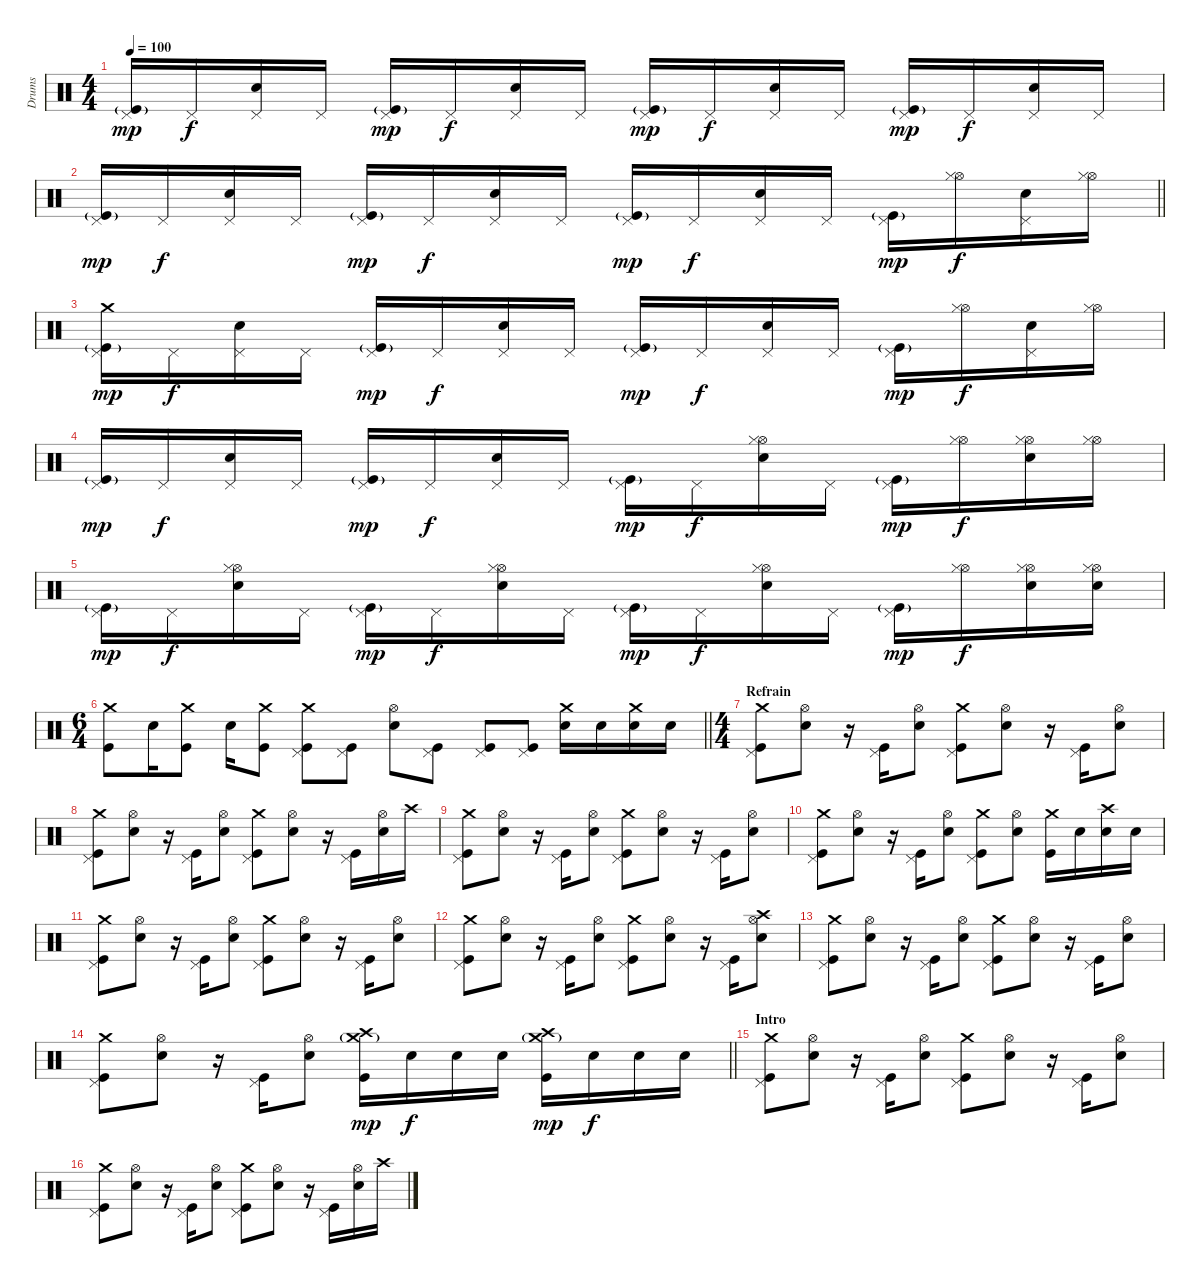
\track ("Drums" "Drums") {instrument percussion}
\staff {score}
\articulation defaults
\ts (4 4)
\tempo 100
\clef neutral
\ks c
("Pedal Hi-Hat (hit)" "Kick (hit)"{g}).16{dy mp} "Pedal Hi-Hat (hit)".16{dy f} ("Pedal Hi-Hat (hit)" "Electric Snare (hit)").16 "Pedal Hi-Hat (hit)".16 ("Pedal Hi-Hat (hit)" "Kick (hit)"{g}).16{dy mp} "Pedal Hi-Hat (hit)".16{dy f} ("Pedal Hi-Hat (hit)" "Electric Snare (hit)").16 "Pedal Hi-Hat (hit)".16 ("Pedal Hi-Hat (hit)" "Kick (hit)"{g}).16{dy mp} "Pedal Hi-Hat (hit)".16{dy f} ("Pedal Hi-Hat (hit)" "Electric Snare (hit)").16 "Pedal Hi-Hat (hit)".16 ("Pedal Hi-Hat (hit)" "Kick (hit)"{g}).16{dy mp} "Pedal Hi-Hat (hit)".16{dy f} ("Pedal Hi-Hat (hit)" "Electric Snare (hit)").16 "Pedal Hi-Hat (hit)".16 |
\barLineRight lightlight
("Pedal Hi-Hat (hit)" "Kick (hit)"{g}).16{dy mp} "Pedal Hi-Hat (hit)".16{dy f} ("Pedal Hi-Hat (hit)" "Electric Snare (hit)").16 "Pedal Hi-Hat (hit)".16 ("Pedal Hi-Hat (hit)" "Kick (hit)"{g}).16{dy mp} "Pedal Hi-Hat (hit)".16{dy f} ("Pedal Hi-Hat (hit)" "Electric Snare (hit)").16 "Pedal Hi-Hat (hit)".16 ("Pedal Hi-Hat (hit)" "Kick (hit)"{g}).16{dy mp} "Pedal Hi-Hat (hit)".16{dy f} ("Pedal Hi-Hat (hit)" "Electric Snare (hit)").16 "Pedal Hi-Hat (hit)".16 ("Pedal Hi-Hat (hit)" "Kick (hit)"{g}).16{dy mp} ("Hi-Hat (open)" "Hi-Hat (closed)").16{dy f} ("Pedal Hi-Hat (hit)" "Electric Snare (hit)").16 ("Hi-Hat (open)" "Hi-Hat (closed)").16 |
("Pedal Hi-Hat (hit)" "Crash medium (hit)" "Kick (hit)"{g}).16{dy mp} "Pedal Hi-Hat (hit)".16{dy f} ("Pedal Hi-Hat (hit)" "Electric Snare (hit)").16 "Pedal Hi-Hat (hit)".16 ("Pedal Hi-Hat (hit)" "Kick (hit)"{g}).16{dy mp} "Pedal Hi-Hat (hit)".16{dy f} ("Pedal Hi-Hat (hit)" "Electric Snare (hit)").16 "Pedal Hi-Hat (hit)".16 ("Pedal Hi-Hat (hit)" "Kick (hit)"{g}).16{dy mp} "Pedal Hi-Hat (hit)".16{dy f} ("Pedal Hi-Hat (hit)" "Electric Snare (hit)").16 "Pedal Hi-Hat (hit)".16 ("Pedal Hi-Hat (hit)" "Kick (hit)"{g}).16{dy mp} ("Hi-Hat (open)" "Hi-Hat (closed)").16{dy f} ("Pedal Hi-Hat (hit)" "Electric Snare (hit)").16 ("Hi-Hat (open)" "Hi-Hat (closed)").16 |
("Pedal Hi-Hat (hit)" "Kick (hit)"{g}).16{dy mp} "Pedal Hi-Hat (hit)".16{dy f} ("Pedal Hi-Hat (hit)" "Electric Snare (hit)").16 "Pedal Hi-Hat (hit)".16 ("Pedal Hi-Hat (hit)" "Kick (hit)"{g}).16{dy mp} "Pedal Hi-Hat (hit)".16{dy f} ("Pedal Hi-Hat (hit)" "Electric Snare (hit)").16 "Pedal Hi-Hat (hit)".16 ("Pedal Hi-Hat (hit)" "Kick (hit)"{g}).16{dy mp} "Pedal Hi-Hat (hit)".16{dy f} ("Hi-Hat (open)" "Hi-Hat (closed)" "Electric Snare (hit)").16 "Pedal Hi-Hat (hit)".16 ("Pedal Hi-Hat (hit)" "Kick (hit)"{g}).16{dy mp} ("Hi-Hat (open)" "Hi-Hat (closed)").16{dy f} ("Hi-Hat (open)" "Hi-Hat (closed)" "Electric Snare (hit)").16 ("Hi-Hat (open)" "Hi-Hat (closed)").16 |
("Pedal Hi-Hat (hit)" "Kick (hit)"{g}).16{dy mp} "Pedal Hi-Hat (hit)".16{dy f} ("Hi-Hat (open)" "Hi-Hat (closed)" "Electric Snare (hit)").16 "Pedal Hi-Hat (hit)".16 ("Pedal Hi-Hat (hit)" "Kick (hit)"{g}).16{dy mp} "Pedal Hi-Hat (hit)".16{dy f} ("Hi-Hat (open)" "Hi-Hat (closed)" "Electric Snare (hit)").16 "Pedal Hi-Hat (hit)".16 ("Pedal Hi-Hat (hit)" "Kick (hit)"{g}).16{dy mp} "Pedal Hi-Hat (hit)".16{dy f} ("Hi-Hat (open)" "Hi-Hat (closed)" "Electric Snare (hit)").16 "Pedal Hi-Hat (hit)".16 ("Pedal Hi-Hat (hit)" "Kick (hit)"{g}).16{dy mp} ("Hi-Hat (open)" "Hi-Hat (closed)").16{dy f} ("Hi-Hat (open)" "Hi-Hat (closed)" "Electric Snare (hit)").16 ("Hi-Hat (open)" "Hi-Hat (closed)" "Electric Snare (hit)").16 |
\ts (6 4)
\barLineRight lightlight
("Crash medium (hit)" "Kick (hit)").8 "Electric Snare (hit)".16 ("Crash medium (hit)" "Kick (hit)").8 "Electric Snare (hit)".16 ("Crash medium (hit)" "Kick (hit)").8 ("Crash medium (hit)" "Pedal Hi-Hat (hit)" "Kick (hit)").8 ("Pedal Hi-Hat (hit)" "Kick (hit)").8 ("Hi-Hat (open)" "Electric Snare (hit)").8 ("Pedal Hi-Hat (hit)" "Kick (hit)").8 ("Pedal Hi-Hat (hit)" "Kick (hit)").8 ("Pedal Hi-Hat (hit)" "Kick (hit)").8 ("Crash medium (hit)" "Electric Snare (hit)").16 "Electric Snare (hit)".16 ("Crash medium (hit)" "Electric Snare (hit)").16 "Electric Snare (hit)".16 |
\ts (4 4)
\section ("" "Refrain")
("Crash medium (hit)" "Pedal Hi-Hat (hit)" "Kick (hit)").8 ("Hi-Hat (open)" "Electric Snare (hit)").8 r.16 ("Pedal Hi-Hat (hit)" "Kick (hit)").16 ("Hi-Hat (open)" "Electric Snare (hit)").8 ("Crash medium (hit)" "Pedal Hi-Hat (hit)" "Kick (hit)").8 ("Hi-Hat (open)" "Electric Snare (hit)").8 r.16 ("Pedal Hi-Hat (hit)" "Kick (hit)").16 ("Hi-Hat (open)" "Electric Snare (hit)").8 |
("Crash medium (hit)" "Pedal Hi-Hat (hit)" "Kick (hit)").8 ("Hi-Hat (open)" "Electric Snare (hit)").8 r.16 ("Pedal Hi-Hat (hit)" "Kick (hit)").16 ("Hi-Hat (open)" "Electric Snare (hit)").8 ("Crash medium (hit)" "Pedal Hi-Hat (hit)" "Kick (hit)").8 ("Hi-Hat (open)" "Electric Snare (hit)").8 r.16 ("Pedal Hi-Hat (hit)" "Kick (hit)").16 ("Hi-Hat (open)" "Electric Snare (hit)").16 "Crash high (hit)".16 |
("Crash medium (hit)" "Pedal Hi-Hat (hit)" "Kick (hit)").8 ("Hi-Hat (open)" "Electric Snare (hit)").8 r.16 ("Pedal Hi-Hat (hit)" "Kick (hit)").16 ("Hi-Hat (open)" "Electric Snare (hit)").8 ("Crash medium (hit)" "Pedal Hi-Hat (hit)" "Kick (hit)").8 ("Hi-Hat (open)" "Electric Snare (hit)").8 r.16 ("Pedal Hi-Hat (hit)" "Kick (hit)").16 ("Hi-Hat (open)" "Electric Snare (hit)").8 |
("Crash medium (hit)" "Pedal Hi-Hat (hit)" "Kick (hit)").8 ("Hi-Hat (open)" "Electric Snare (hit)").8 r.16 ("Pedal Hi-Hat (hit)" "Kick (hit)").16 ("Hi-Hat (open)" "Electric Snare (hit)").8 ("Crash medium (hit)" "Pedal Hi-Hat (hit)" "Kick (hit)").8 ("Hi-Hat (open)" "Electric Snare (hit)").8 ("Crash medium (hit)" "Kick (hit)").16 "Electric Snare (hit)".16 ("Crash high (hit)" "Electric Snare (hit)").16 "Electric Snare (hit)".16 |
("Crash medium (hit)" "Pedal Hi-Hat (hit)" "Kick (hit)").8 ("Hi-Hat (open)" "Electric Snare (hit)").8 r.16 ("Pedal Hi-Hat (hit)" "Kick (hit)").16 ("Hi-Hat (open)" "Electric Snare (hit)").8 ("Crash medium (hit)" "Pedal Hi-Hat (hit)" "Kick (hit)").8 ("Hi-Hat (open)" "Electric Snare (hit)").8 r.16 ("Pedal Hi-Hat (hit)" "Kick (hit)").16 ("Hi-Hat (open)" "Electric Snare (hit)").8 |
("Crash medium (hit)" "Pedal Hi-Hat (hit)" "Kick (hit)").8 ("Hi-Hat (open)" "Electric Snare (hit)").8 r.16 ("Pedal Hi-Hat (hit)" "Kick (hit)").16 ("Hi-Hat (open)" "Electric Snare (hit)").8 ("Crash medium (hit)" "Pedal Hi-Hat (hit)" "Kick (hit)").8 ("Hi-Hat (open)" "Electric Snare (hit)").8 r.16 ("Pedal Hi-Hat (hit)" "Kick (hit)").16 ("Crash high (hit)" "Hi-Hat (open)" "Electric Snare (hit)").8 |
("Crash medium (hit)" "Pedal Hi-Hat (hit)" "Kick (hit)").8 ("Hi-Hat (open)" "Electric Snare (hit)").8 r.16 ("Pedal Hi-Hat (hit)" "Kick (hit)").16 ("Hi-Hat (open)" "Electric Snare (hit)").8 ("Crash medium (hit)" "Pedal Hi-Hat (hit)" "Kick (hit)").8 ("Hi-Hat (open)" "Electric Snare (hit)").8 r.16 ("Pedal Hi-Hat (hit)" "Kick (hit)").16 ("Hi-Hat (open)" "Electric Snare (hit)").8 |
\barLineRight lightlight
("Crash medium (hit)" "Pedal Hi-Hat (hit)" "Kick (hit)").8 ("Hi-Hat (open)" "Electric Snare (hit)").8 r.16 ("Pedal Hi-Hat (hit)" "Kick (hit)").16 ("Hi-Hat (open)" "Electric Snare (hit)").8 ("Crash high (hit)" "Crash medium (hit)"{g} "Kick (hit)").16{dy mp} "Electric Snare (hit)".16{dy f} "Electric Snare (hit)".16 "Electric Snare (hit)".16 ("Crash high (hit)" "Crash medium (hit)"{g} "Kick (hit)").16{dy mp} "Electric Snare (hit)".16{dy f} "Electric Snare (hit)".16 "Electric Snare (hit)".16 |
\section ("" "Intro")
("Crash medium (hit)" "Pedal Hi-Hat (hit)" "Kick (hit)").8 ("Hi-Hat (open)" "Electric Snare (hit)").8 r.16 ("Pedal Hi-Hat (hit)" "Kick (hit)").16 ("Hi-Hat (open)" "Electric Snare (hit)").8 ("Crash medium (hit)" "Pedal Hi-Hat (hit)" "Kick (hit)").8 ("Hi-Hat (open)" "Electric Snare (hit)").8 r.16 ("Pedal Hi-Hat (hit)" "Kick (hit)").16 ("Hi-Hat (open)" "Electric Snare (hit)").8 |
("Crash medium (hit)" "Pedal Hi-Hat (hit)" "Kick (hit)").8 ("Hi-Hat (open)" "Electric Snare (hit)").8 r.16 ("Pedal Hi-Hat (hit)" "Kick (hit)").16 ("Hi-Hat (open)" "Electric Snare (hit)").8 ("Crash medium (hit)" "Pedal Hi-Hat (hit)" "Kick (hit)").8 ("Hi-Hat (open)" "Electric Snare (hit)").8 r.16 ("Pedal Hi-Hat (hit)" "Kick (hit)").16 ("Hi-Hat (open)" "Electric Snare (hit)").16 "Crash high (hit)".16
